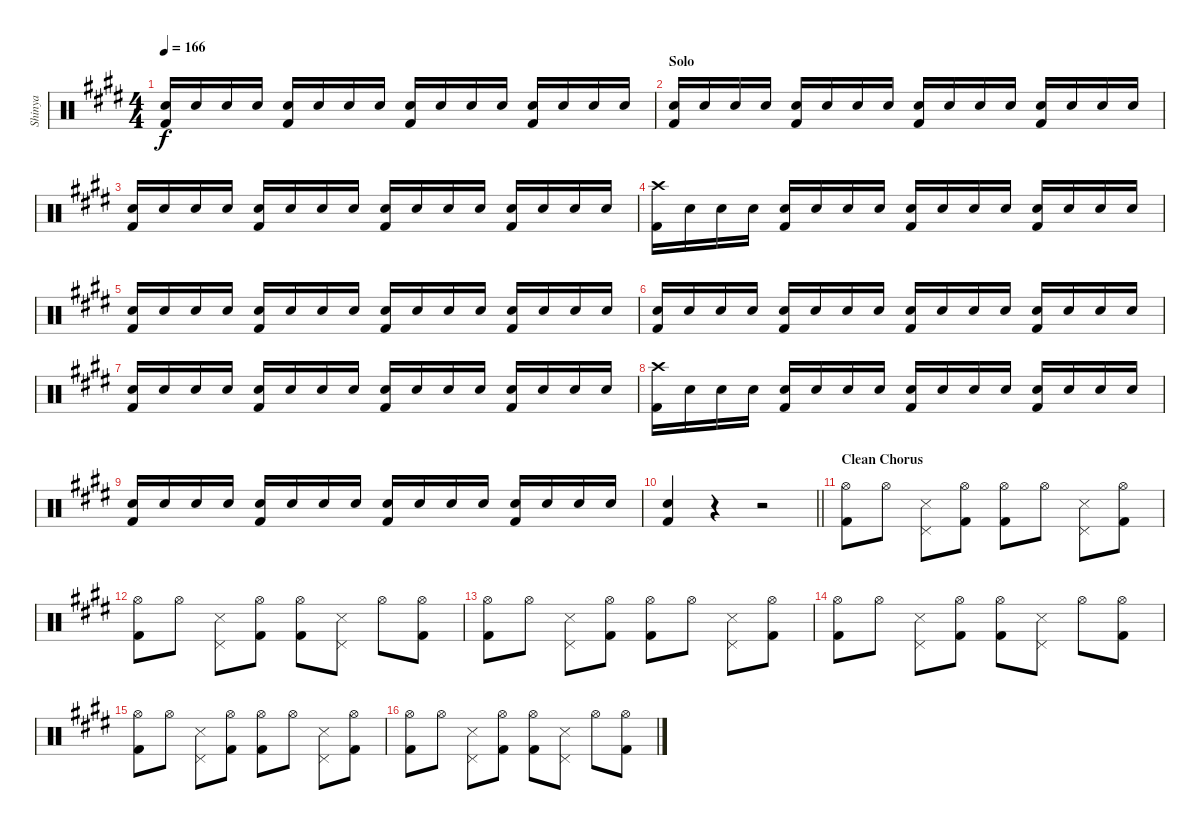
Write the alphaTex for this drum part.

\track ("Shinya" "Shinya") {instrument percussion}
\staff {score}
\articulation defaults
\ts (4 4)
\tempo 166
\clef neutral
\ks e
("Snare (hit) 2" "Kick (hit) 2").16{dy f} "Snare (hit) 2".16 "Snare (hit) 2".16 "Snare (hit) 2".16 ("Snare (hit) 2" "Kick (hit) 2").16 "Snare (hit) 2".16 "Snare (hit) 2".16 "Snare (hit) 2".16 ("Snare (hit) 2" "Kick (hit) 2").16 "Snare (hit) 2".16 "Snare (hit) 2".16 "Snare (hit) 2".16 ("Snare (hit) 2" "Kick (hit) 2").16 "Snare (hit) 2".16 "Snare (hit) 2".16 "Snare (hit) 2".16 |
\section ("" "Solo")
("Snare (hit) 2" "Kick (hit) 2").16 "Snare (hit) 2".16 "Snare (hit) 2".16 "Snare (hit) 2".16 ("Snare (hit) 2" "Kick (hit) 2").16 "Snare (hit) 2".16 "Snare (hit) 2".16 "Snare (hit) 2".16 ("Snare (hit) 2" "Kick (hit) 2").16 "Snare (hit) 2".16 "Snare (hit) 2".16 "Snare (hit) 2".16 ("Snare (hit) 2" "Kick (hit) 2").16 "Snare (hit) 2".16 "Snare (hit) 2".16 "Snare (hit) 2".16 |
("Snare (hit) 2" "Kick (hit) 2").16 "Snare (hit) 2".16 "Snare (hit) 2".16 "Snare (hit) 2".16 ("Snare (hit) 2" "Kick (hit) 2").16 "Snare (hit) 2".16 "Snare (hit) 2".16 "Snare (hit) 2".16 ("Snare (hit) 2" "Kick (hit) 2").16 "Snare (hit) 2".16 "Snare (hit) 2".16 "Snare (hit) 2".16 ("Snare (hit) 2" "Kick (hit) 2").16 "Snare (hit) 2".16 "Snare (hit) 2".16 "Snare (hit) 2".16 |
("Crash high (hit)" "Kick (hit) 2").16 "Snare (hit) 2".16 "Snare (hit) 2".16 "Snare (hit) 2".16 ("Snare (hit) 2" "Kick (hit) 2").16 "Snare (hit) 2".16 "Snare (hit) 2".16 "Snare (hit) 2".16 ("Snare (hit) 2" "Kick (hit) 2").16 "Snare (hit) 2".16 "Snare (hit) 2".16 "Snare (hit) 2".16 ("Snare (hit) 2" "Kick (hit) 2").16 "Snare (hit) 2".16 "Snare (hit) 2".16 "Snare (hit) 2".16 |
("Snare (hit) 2" "Kick (hit) 2").16 "Snare (hit) 2".16 "Snare (hit) 2".16 "Snare (hit) 2".16 ("Snare (hit) 2" "Kick (hit) 2").16 "Snare (hit) 2".16 "Snare (hit) 2".16 "Snare (hit) 2".16 ("Snare (hit) 2" "Kick (hit) 2").16 "Snare (hit) 2".16 "Snare (hit) 2".16 "Snare (hit) 2".16 ("Snare (hit) 2" "Kick (hit) 2").16 "Snare (hit) 2".16 "Snare (hit) 2".16 "Snare (hit) 2".16 |
("Snare (hit) 2" "Kick (hit) 2").16 "Snare (hit) 2".16 "Snare (hit) 2".16 "Snare (hit) 2".16 ("Snare (hit) 2" "Kick (hit) 2").16 "Snare (hit) 2".16 "Snare (hit) 2".16 "Snare (hit) 2".16 ("Snare (hit) 2" "Kick (hit) 2").16 "Snare (hit) 2".16 "Snare (hit) 2".16 "Snare (hit) 2".16 ("Snare (hit) 2" "Kick (hit) 2").16 "Snare (hit) 2".16 "Snare (hit) 2".16 "Snare (hit) 2".16 |
("Snare (hit) 2" "Kick (hit) 2").16 "Snare (hit) 2".16 "Snare (hit) 2".16 "Snare (hit) 2".16 ("Snare (hit) 2" "Kick (hit) 2").16 "Snare (hit) 2".16 "Snare (hit) 2".16 "Snare (hit) 2".16 ("Snare (hit) 2" "Kick (hit) 2").16 "Snare (hit) 2".16 "Snare (hit) 2".16 "Snare (hit) 2".16 ("Snare (hit) 2" "Kick (hit) 2").16 "Snare (hit) 2".16 "Snare (hit) 2".16 "Snare (hit) 2".16 |
("Crash high (hit)" "Kick (hit) 2").16 "Snare (hit) 2".16 "Snare (hit) 2".16 "Snare (hit) 2".16 ("Snare (hit) 2" "Kick (hit) 2").16 "Snare (hit) 2".16 "Snare (hit) 2".16 "Snare (hit) 2".16 ("Snare (hit) 2" "Kick (hit) 2").16 "Snare (hit) 2".16 "Snare (hit) 2".16 "Snare (hit) 2".16 ("Snare (hit) 2" "Kick (hit) 2").16 "Snare (hit) 2".16 "Snare (hit) 2".16 "Snare (hit) 2".16 |
("Snare (hit) 2" "Kick (hit) 2").16 "Snare (hit) 2".16 "Snare (hit) 2".16 "Snare (hit) 2".16 ("Snare (hit) 2" "Kick (hit) 2").16 "Snare (hit) 2".16 "Snare (hit) 2".16 "Snare (hit) 2".16 ("Snare (hit) 2" "Kick (hit) 2").16 "Snare (hit) 2".16 "Snare (hit) 2".16 "Snare (hit) 2".16 ("Snare (hit) 2" "Kick (hit) 2").16 "Snare (hit) 2".16 "Snare (hit) 2".16 "Snare (hit) 2".16 |
\barLineRight lightlight
("Snare (hit) 2" "Kick (hit) 2").4 r.4 r.2 |
\section ("" "Clean Chorus")
("Hi-Hat (open)" "Kick (hit) 2").8 "Hi-Hat (open)".8 ("Snare (side stick) 3" "Pedal Hi-Hat (hit)").8 ("Hi-Hat (open)" "Kick (hit) 2").8 ("Hi-Hat (open)" "Kick (hit) 2").8 "Hi-Hat (open)".8 ("Snare (side stick) 3" "Pedal Hi-Hat (hit)").8 ("Hi-Hat (open)" "Kick (hit) 2").8 |
("Hi-Hat (open)" "Kick (hit) 2").8 "Hi-Hat (open)".8 ("Snare (side stick) 3" "Pedal Hi-Hat (hit)").8 ("Hi-Hat (open)" "Kick (hit) 2").8 ("Hi-Hat (open)" "Kick (hit) 2").8 ("Snare (side stick) 3" "Pedal Hi-Hat (hit)").8 "Hi-Hat (open)".8 ("Hi-Hat (open)" "Kick (hit) 2").8 |
("Hi-Hat (open)" "Kick (hit) 2").8 "Hi-Hat (open)".8 ("Snare (side stick) 3" "Pedal Hi-Hat (hit)").8 ("Hi-Hat (open)" "Kick (hit) 2").8 ("Hi-Hat (open)" "Kick (hit) 2").8 "Hi-Hat (open)".8 ("Snare (side stick) 3" "Pedal Hi-Hat (hit)").8 ("Hi-Hat (open)" "Kick (hit) 2").8 |
("Hi-Hat (open)" "Kick (hit) 2").8 "Hi-Hat (open)".8 ("Snare (side stick) 3" "Pedal Hi-Hat (hit)").8 ("Hi-Hat (open)" "Kick (hit) 2").8 ("Hi-Hat (open)" "Kick (hit) 2").8 ("Snare (side stick) 3" "Pedal Hi-Hat (hit)").8 "Hi-Hat (open)".8 ("Hi-Hat (open)" "Kick (hit) 2").8 |
("Hi-Hat (open)" "Kick (hit) 2").8 "Hi-Hat (open)".8 ("Snare (side stick) 3" "Pedal Hi-Hat (hit)").8 ("Hi-Hat (open)" "Kick (hit) 2").8 ("Hi-Hat (open)" "Kick (hit) 2").8 "Hi-Hat (open)".8 ("Snare (side stick) 3" "Pedal Hi-Hat (hit)").8 ("Hi-Hat (open)" "Kick (hit) 2").8 |
("Hi-Hat (open)" "Kick (hit) 2").8 "Hi-Hat (open)".8 ("Snare (side stick) 3" "Pedal Hi-Hat (hit)").8 ("Hi-Hat (open)" "Kick (hit) 2").8 ("Hi-Hat (open)" "Kick (hit) 2").8 ("Snare (side stick) 3" "Pedal Hi-Hat (hit)").8 "Hi-Hat (open)".8 ("Hi-Hat (open)" "Kick (hit) 2").8
